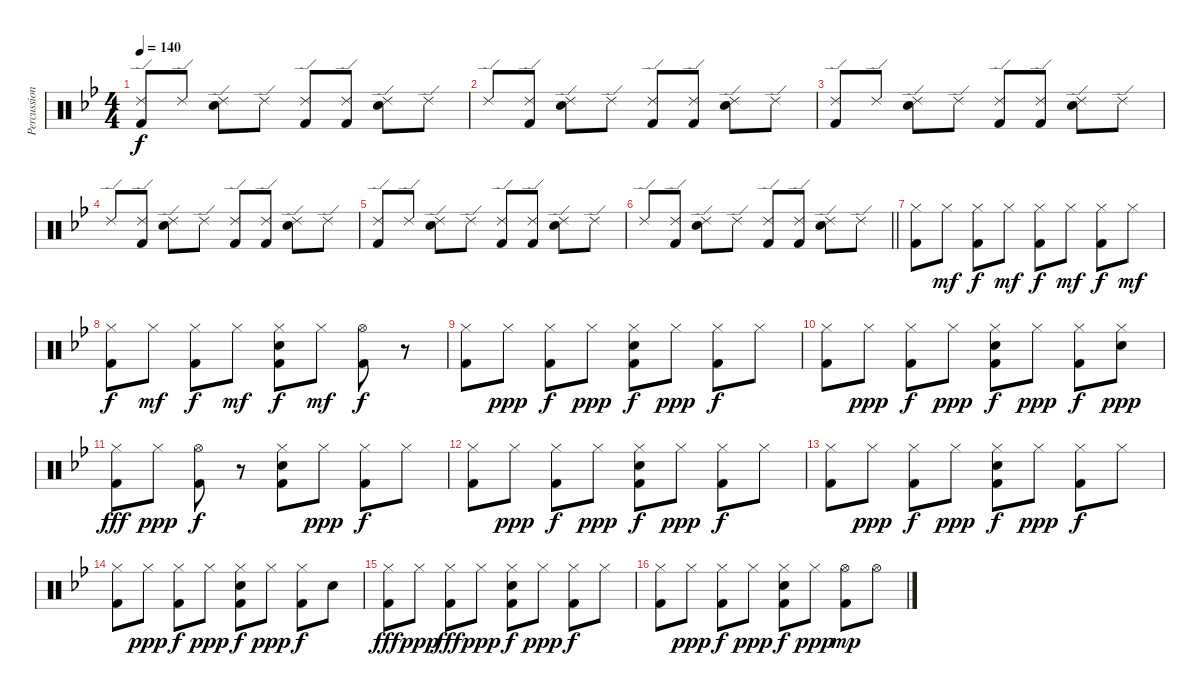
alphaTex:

\track ("Percussion" "Percussion") {instrument percussion}
\staff {score}
\articulation defaults
\ts (4 4)
\tempo 140
\clef neutral
\ks bb
("Ride (edge) 2" "Kick (hit) 2").8{dy f} "Ride (edge) 2".8 ("Ride (edge) 2" "Electric Snare (hit)").8 "Ride (edge) 2".8 ("Ride (edge) 2" "Kick (hit) 2").8 ("Ride (edge) 2" "Kick (hit) 2").8 ("Ride (edge) 2" "Electric Snare (hit)").8 "Ride (edge) 2".8 |
"Ride (edge) 2".8 ("Ride (edge) 2" "Kick (hit) 2").8 ("Ride (edge) 2" "Electric Snare (hit)").8 "Ride (edge) 2".8 ("Ride (edge) 2" "Kick (hit) 2").8 ("Ride (edge) 2" "Kick (hit) 2").8 ("Ride (edge) 2" "Electric Snare (hit)").8 "Ride (edge) 2".8 |
("Ride (edge) 2" "Kick (hit) 2").8 "Ride (edge) 2".8 ("Ride (edge) 2" "Electric Snare (hit)").8 "Ride (edge) 2".8 ("Ride (edge) 2" "Kick (hit) 2").8 ("Ride (edge) 2" "Kick (hit) 2").8 ("Ride (edge) 2" "Electric Snare (hit)").8 "Ride (edge) 2".8 |
"Ride (edge) 2".8 ("Ride (edge) 2" "Kick (hit) 2").8 ("Ride (edge) 2" "Electric Snare (hit)").8 "Ride (edge) 2".8 ("Ride (edge) 2" "Kick (hit) 2").8 ("Ride (edge) 2" "Kick (hit) 2").8 ("Ride (edge) 2" "Electric Snare (hit)").8 "Ride (edge) 2".8 |
("Ride (edge) 2" "Kick (hit) 2").8 "Ride (edge) 2".8 ("Ride (edge) 2" "Electric Snare (hit)").8 "Ride (edge) 2".8 ("Ride (edge) 2" "Kick (hit) 2").8 ("Ride (edge) 2" "Kick (hit) 2").8 ("Ride (edge) 2" "Electric Snare (hit)").8 "Ride (edge) 2".8 |
\barLineRight lightlight "Ride (edge) 2".8
("Ride (edge) 2" "Kick (hit) 2").8 ("Ride (edge) 2" "Electric Snare (hit)").8 "Ride (edge) 2".8 ("Ride (edge) 2" "Kick (hit) 2").8 ("Ride (edge) 2" "Kick (hit) 2").8 ("Ride (edge) 2" "Electric Snare (hit)").8 "Ride (edge) 2".8 |
("Hi-Hat (closed)" "Kick (hit) 2").8 "Hi-Hat (closed)".8{dy mf} ("Hi-Hat (closed)" "Kick (hit) 2").8{dy f} "Hi-Hat (closed)".8{dy mf} ("Hi-Hat (closed)" "Kick (hit) 2").8{dy f} "Hi-Hat (closed)".8{dy mf} ("Hi-Hat (closed)" "Kick (hit) 2").8{dy f} "Hi-Hat (closed)".8{dy mf} |
("Hi-Hat (closed)" "Kick (hit) 2").8{dy f} "Hi-Hat (closed)".8{dy mf} ("Hi-Hat (closed)" "Kick (hit) 2").8{dy f} "Hi-Hat (closed)".8{dy mf} ("Hi-Hat (closed)" "Electric Snare (hit)" "Kick (hit) 2").8{dy f} "Hi-Hat (closed)".8{dy mf} ("Hi-Hat (open)" "Kick (hit) 2").8{dy f} r.8 |
("Hi-Hat (closed)" "Kick (hit) 2").8 "Hi-Hat (closed)".8{dy ppp} ("Hi-Hat (closed)" "Kick (hit) 2").8{dy f} "Hi-Hat (closed)".8{dy ppp} ("Hi-Hat (closed)" "Electric Snare (hit)" "Kick (hit) 2").8{dy f} "Hi-Hat (closed)".8{dy ppp} ("Hi-Hat (closed)" "Kick (hit) 2").8{dy f} "Hi-Hat (closed)".8 |
("Hi-Hat (closed)" "Kick (hit) 2").8 "Hi-Hat (closed)".8{dy ppp} ("Hi-Hat (closed)" "Kick (hit) 2").8{dy f} "Hi-Hat (closed)".8{dy ppp} ("Hi-Hat (closed)" "Electric Snare (hit)" "Kick (hit) 2").8{dy f} "Hi-Hat (closed)".8{dy ppp} ("Hi-Hat (closed)" "Kick (hit) 2").8{dy f} ("Hi-Hat (closed)" "Electric Snare (hit)").8{dy ppp} |
("Hi-Hat (closed)" "Kick (hit) 2").8{dy fff} "Hi-Hat (closed)".8{dy ppp} ("Hi-Hat (open)" "Kick (hit) 2").8{dy f} r.8 ("Hi-Hat (closed)" "Electric Snare (hit)" "Kick (hit) 2").8 "Hi-Hat (closed)".8{dy ppp} ("Hi-Hat (closed)" "Kick (hit) 2").8{dy f} "Hi-Hat (closed)".8 |
("Hi-Hat (closed)" "Kick (hit) 2").8 "Hi-Hat (closed)".8{dy ppp} ("Hi-Hat (closed)" "Kick (hit) 2").8{dy f} "Hi-Hat (closed)".8{dy ppp} ("Hi-Hat (closed)" "Electric Snare (hit)" "Kick (hit) 2").8{dy f} "Hi-Hat (closed)".8{dy ppp} ("Hi-Hat (closed)" "Kick (hit) 2").8{dy f} "Hi-Hat (closed)".8 |
("Hi-Hat (closed)" "Kick (hit) 2").8 "Hi-Hat (closed)".8{dy ppp} ("Hi-Hat (closed)" "Kick (hit) 2").8{dy f} "Hi-Hat (closed)".8{dy ppp} ("Hi-Hat (closed)" "Electric Snare (hit)" "Kick (hit) 2").8{dy f} "Hi-Hat (closed)".8{dy ppp} ("Hi-Hat (closed)" "Kick (hit) 2").8{dy f} "Hi-Hat (closed)".8 |
("Hi-Hat (closed)" "Kick (hit) 2").8 "Hi-Hat (closed)".8{dy ppp} ("Hi-Hat (closed)" "Kick (hit) 2").8{dy f} "Hi-Hat (closed)".8{dy ppp} ("Hi-Hat (closed)" "Electric Snare (hit)" "Kick (hit) 2").8{dy f} "Hi-Hat (closed)".8{dy ppp} ("Hi-Hat (closed)" "Kick (hit) 2").8{dy f} "Electric Snare (hit)".8 |
("Hi-Hat (closed)" "Kick (hit) 2").8{dy fff} "Hi-Hat (closed)".8{dy ppp} ("Hi-Hat (closed)" "Kick (hit) 2").8{dy fff} "Hi-Hat (closed)".8{dy ppp} ("Hi-Hat (closed)" "Electric Snare (hit)" "Kick (hit) 2").8{dy f} "Hi-Hat (closed)".8{dy ppp} ("Hi-Hat (closed)" "Kick (hit) 2").8{dy f} "Hi-Hat (closed)".8 |
("Hi-Hat (closed)" "Kick (hit) 2").8 "Hi-Hat (closed)".8{dy ppp} ("Hi-Hat (closed)" "Kick (hit) 2").8{dy f} "Hi-Hat (closed)".8{dy ppp} ("Hi-Hat (closed)" "Electric Snare (hit)" "Kick (hit) 2").8{dy f} "Hi-Hat (closed)".8{dy ppp} ("Hi-Hat (open)" "Kick (hit) 2").8{dy mp} "Hi-Hat (open)".8
